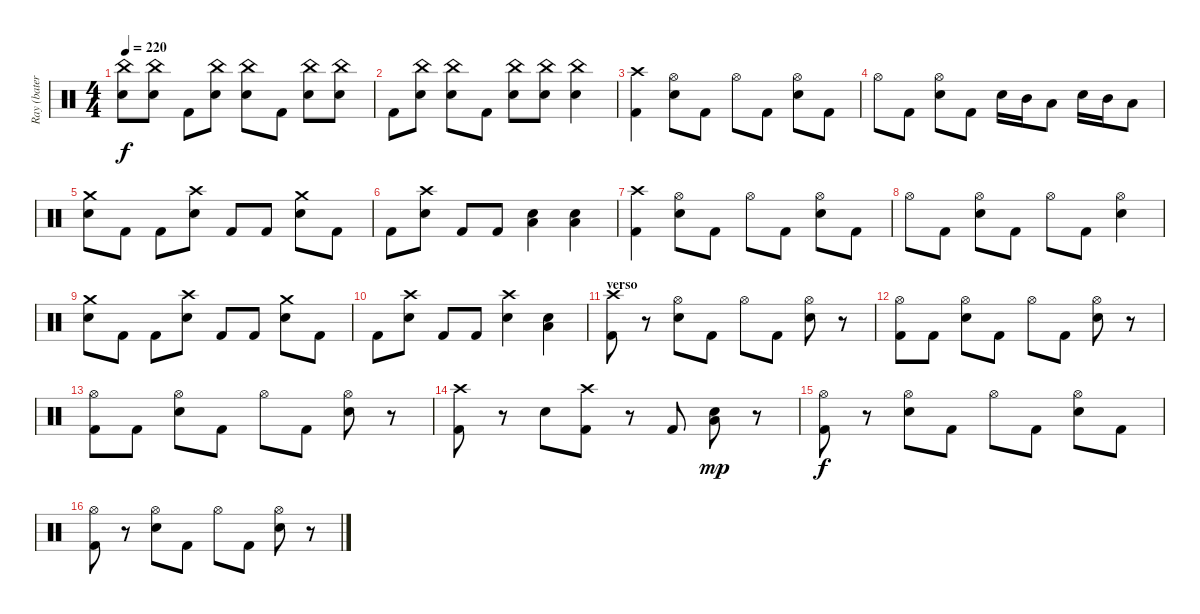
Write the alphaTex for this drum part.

\track ("Ray (batería)" "Ray (bater") {instrument percussion}
\staff {score}
\articulation defaults
\ts (4 4)
\tempo 220
\clef neutral
\ks c
("China (hit)" "Snare (hit) 2").8{dy f} ("China (hit)" "Snare (hit) 2").8 "Kick (hit) 2".8 ("China (hit)" "Snare (hit) 2").8 ("China (hit)" "Snare (hit) 2").8 "Kick (hit) 2".8 ("China (hit)" "Snare (hit) 2").8 ("China (hit)" "Snare (hit) 2").8 |
"Kick (hit) 2".8 ("China (hit)" "Snare (hit) 2").8 ("China (hit)" "Snare (hit) 2").8 "Kick (hit) 2".8 ("China (hit)" "Snare (hit) 2").8 ("China (hit)" "Snare (hit) 2").8 ("China (hit)" "Snare (hit) 2").4 |
("Crash high (hit)" "Kick (hit) 2").4 ("Hi-Hat (open)" "Snare (hit) 2").8 "Kick (hit) 2".8 "Hi-Hat (open)".8 "Kick (hit) 2".8 ("Hi-Hat (open)" "Snare (hit) 2").8 "Kick (hit) 2".8 |
"Hi-Hat (open)".8 "Kick (hit) 2".8 ("Hi-Hat (open)" "Snare (hit) 2").8 "Kick (hit) 2".8 "Snare (hit) 2".16 "Mid Tom (hit)".16 "Low Tom (hit)".8 "Snare (hit) 2".16 "Mid Tom (hit)".16 "Low Tom (hit)".8 |
("Crash medium (hit)" "Snare (hit) 2").8 "Kick (hit) 2".8 "Kick (hit) 2".8 ("Crash high (hit)" "Snare (hit) 2").8 "Kick (hit) 2".8 "Kick (hit) 2".8 ("Crash medium (hit)" "Snare (hit) 2").8 "Kick (hit) 2".8 |
"Kick (hit) 2".8 ("Crash high (hit)" "Snare (hit) 2").8 "Kick (hit) 2".8 "Kick (hit) 2".8 ("Snare (hit) 2" "Low Tom (hit)").4 ("Snare (hit) 2" "Low Tom (hit)").4 |
("Crash high (hit)" "Kick (hit) 2").4 ("Hi-Hat (open)" "Snare (hit) 2").8 "Kick (hit) 2".8 "Hi-Hat (open)".8 "Kick (hit) 2".8 ("Hi-Hat (open)" "Snare (hit) 2").8 "Kick (hit) 2".8 |
"Hi-Hat (open)".8 "Kick (hit) 2".8 ("Hi-Hat (open)" "Snare (hit) 2").8 "Kick (hit) 2".8 "Hi-Hat (open)".8 "Kick (hit) 2".8 ("Hi-Hat (open)" "Snare (hit) 2").4 |
("Crash medium (hit)" "Snare (hit) 2").8 "Kick (hit) 2".8 "Kick (hit) 2".8 ("Crash high (hit)" "Snare (hit) 2").8 "Kick (hit) 2".8 "Kick (hit) 2".8 ("Crash medium (hit)" "Snare (hit) 2").8 "Kick (hit) 2".8 |
"Kick (hit) 2".8 ("Crash high (hit)" "Snare (hit) 2").8 "Kick (hit) 2".8 "Kick (hit) 2".8 ("Crash high (hit)" "Snare (hit) 2").4 ("Snare (hit) 2" "Low Tom (hit)").4 |
\section ("" "verso")
("Crash high (hit)" "Kick (hit) 2").8 r.8 ("Hi-Hat (open)" "Snare (hit) 2").8 "Kick (hit) 2".8 "Hi-Hat (open)".8 "Kick (hit) 2".8 ("Hi-Hat (open)" "Snare (hit) 2").8 r.8 |
("Hi-Hat (open)" "Kick (hit) 2").8 "Kick (hit) 2".8 ("Hi-Hat (open)" "Snare (hit) 2").8 "Kick (hit) 2".8 "Hi-Hat (open)".8 "Kick (hit) 2".8 ("Hi-Hat (open)" "Snare (hit) 2").8 r.8 |
("Hi-Hat (open)" "Kick (hit) 2").8 "Kick (hit) 2".8 ("Hi-Hat (open)" "Snare (hit) 2").8 "Kick (hit) 2".8 "Hi-Hat (open)".8 "Kick (hit) 2".8 ("Hi-Hat (open)" "Snare (hit) 2").8 r.8 |
("Crash high (hit)" "Kick (hit) 2").8 r.8 "Snare (hit) 2".8 ("Crash high (hit)" "Kick (hit) 2").8 r.8 "Kick (hit) 2".8 ("Snare (hit) 2" "Low Tom (hit)").8{dy mp} r.8 |
("Hi-Hat (open)" "Kick (hit) 2").8{dy f} r.8 ("Hi-Hat (open)" "Snare (hit) 2").8 "Kick (hit) 2".8 "Hi-Hat (open)".8 "Kick (hit) 2".8 ("Hi-Hat (open)" "Snare (hit) 2").8 "Kick (hit) 2".8 |
("Hi-Hat (open)" "Kick (hit) 2").8 r.8 ("Hi-Hat (open)" "Snare (hit) 2").8 "Kick (hit) 2".8 "Hi-Hat (open)".8 "Kick (hit) 2".8 ("Hi-Hat (open)" "Snare (hit) 2").8 r.8
